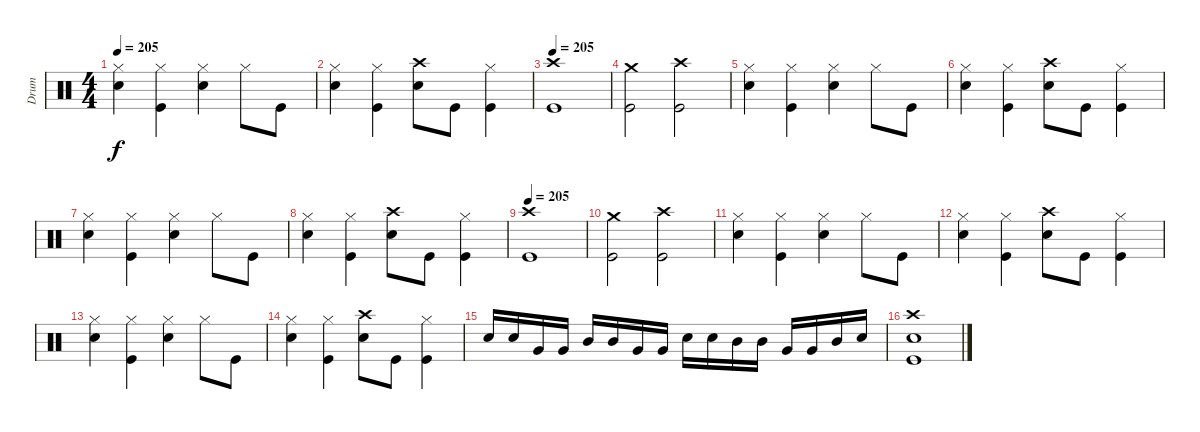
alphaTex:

\track ("Drum" "Drum") {instrument percussion}
\staff {score}
\articulation defaults
\ts (4 4)
\tempo 205
\clef neutral
\ks c
("Hi-Hat (closed)" "Snare (hit) 2").4{dy f} ("Hi-Hat (closed)" "Kick (hit)").4 ("Hi-Hat (closed)" "Snare (hit) 2").4 "Hi-Hat (closed)".8 "Kick (hit)".8 |
("Hi-Hat (closed)" "Snare (hit) 2").4 ("Hi-Hat (closed)" "Kick (hit)").4 ("Crash high (hit)" "Snare (hit) 2").8 "Kick (hit)".8 ("Hi-Hat (closed)" "Kick (hit)").4 |
\tempo 205
("Crash high (hit)" "Kick (hit)").1 |
("Crash medium (hit)" "Kick (hit)").2 ("Crash high (hit)" "Kick (hit)").2 |
("Hi-Hat (closed)" "Snare (hit) 2").4 ("Hi-Hat (closed)" "Kick (hit)").4 ("Hi-Hat (closed)" "Snare (hit) 2").4 "Hi-Hat (closed)".8 "Kick (hit)".8 |
("Hi-Hat (closed)" "Snare (hit) 2").4 ("Hi-Hat (closed)" "Kick (hit)").4 ("Crash high (hit)" "Snare (hit) 2").8 "Kick (hit)".8 ("Hi-Hat (closed)" "Kick (hit)").4 |
("Hi-Hat (closed)" "Snare (hit) 2").4 ("Hi-Hat (closed)" "Kick (hit)").4 ("Hi-Hat (closed)" "Snare (hit) 2").4 "Hi-Hat (closed)".8 "Kick (hit)".8 |
("Hi-Hat (closed)" "Snare (hit) 2").4 ("Hi-Hat (closed)" "Kick (hit)").4 ("Crash high (hit)" "Snare (hit) 2").8 "Kick (hit)".8 ("Hi-Hat (closed)" "Kick (hit)").4 |
\tempo 205
("Crash high (hit)" "Kick (hit)").1 |
("Crash medium (hit)" "Kick (hit)").2 ("Crash high (hit)" "Kick (hit)").2 |
("Hi-Hat (closed)" "Snare (hit) 2").4 ("Hi-Hat (closed)" "Kick (hit)").4 ("Hi-Hat (closed)" "Snare (hit) 2").4 "Hi-Hat (closed)".8 "Kick (hit)".8 |
("Hi-Hat (closed)" "Snare (hit) 2").4 ("Hi-Hat (closed)" "Kick (hit)").4 ("Crash high (hit)" "Snare (hit) 2").8 "Kick (hit)".8 ("Hi-Hat (closed)" "Kick (hit)").4 |
("Hi-Hat (closed)" "Snare (hit) 2").4 ("Hi-Hat (closed)" "Kick (hit)").4 ("Hi-Hat (closed)" "Snare (hit) 2").4 "Hi-Hat (closed)".8 "Kick (hit)".8 |
("Hi-Hat (closed)" "Snare (hit) 2").4 ("Hi-Hat (closed)" "Kick (hit)").4 ("Crash high (hit)" "Snare (hit) 2").8 "Kick (hit)".8 ("Hi-Hat (closed)" "Kick (hit)").4 |
"Snare (hit) 2".16 "Snare (hit) 2".16 "Very Low Tom (hit)".16 "Very Low Tom (hit)".16 "Mid Tom (hit)".16 "Mid Tom (hit)".16 "Very Low Tom (hit)".16 "Very Low Tom (hit)".16 "Snare (hit) 2".16 "Snare (hit) 2".16 "Mid Tom (hit)".16 "Mid Tom (hit)".16 "Very Low Tom (hit)".16 "Very Low Tom (hit)".16 "Mid Tom (hit)".16 "Snare (hit) 2".16 |
("Crash high (hit)" "Snare (hit) 2" "Kick (hit)").1
